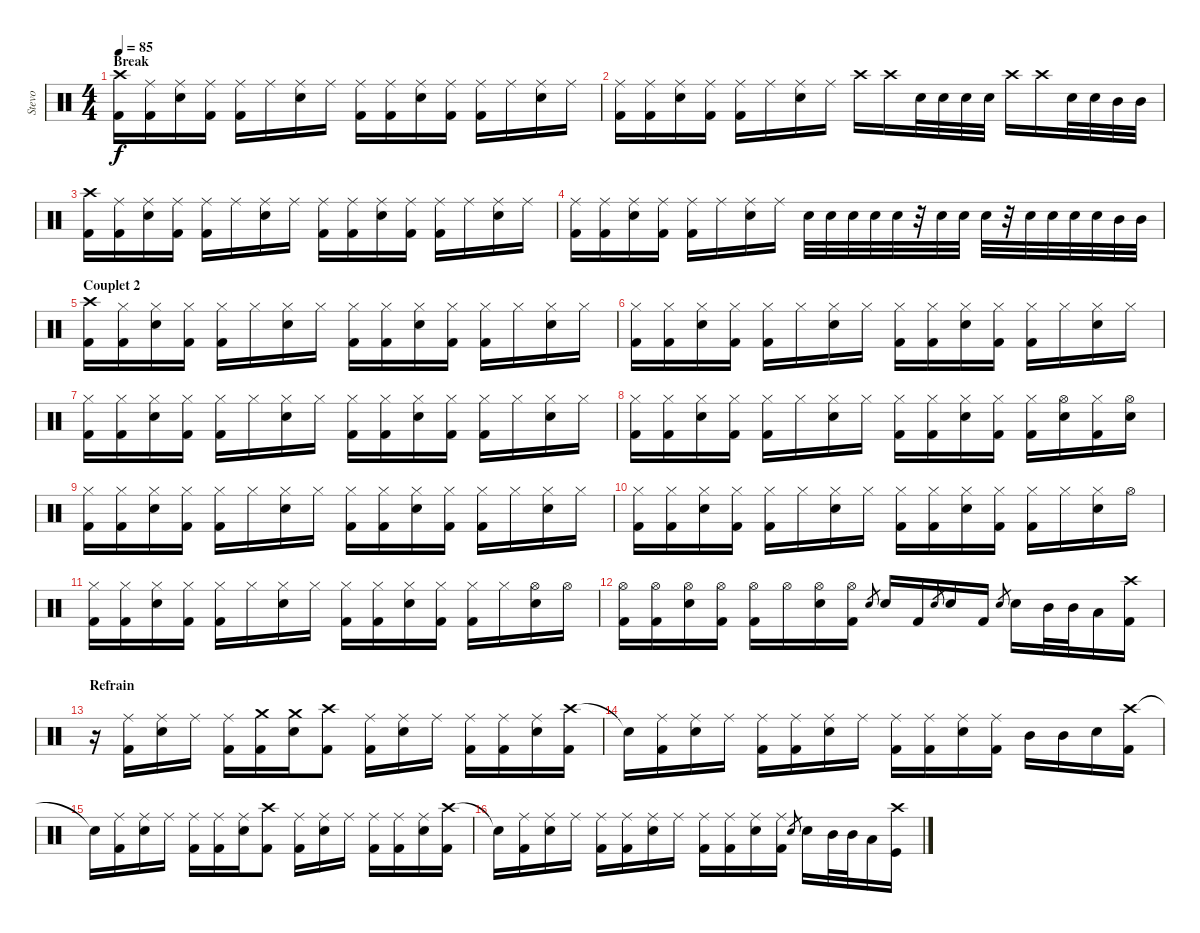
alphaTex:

\track ("Stevo" "Stevo") {instrument percussion}
\staff {score}
\articulation defaults
\ts (4 4)
\section ("" "Break")
\tempo 85
\clef neutral
\ks c
("Crash high (hit)" "Kick (hit) 2").16{dy f} ("Ride (middle)" "Kick (hit) 2").16 ("Ride (middle)" "Electric Snare (hit)").16 ("Ride (middle)" "Kick (hit) 2").16 ("Ride (middle)" "Kick (hit) 2").16 "Ride (middle)".16 ("Ride (middle)" "Electric Snare (hit)").16 "Ride (middle)".16 ("Ride (middle)" "Kick (hit) 2").16 ("Ride (middle)" "Kick (hit) 2").16 ("Ride (middle)" "Electric Snare (hit)").16 ("Ride (middle)" "Kick (hit) 2").16 ("Ride (middle)" "Kick (hit) 2").16 "Ride (middle)".16 ("Ride (middle)" "Electric Snare (hit)").16 "Ride (middle)".16 |
("Ride (middle)" "Kick (hit) 2").16 ("Ride (middle)" "Kick (hit) 2").16 ("Ride (middle)" "Electric Snare (hit)").16 ("Ride (middle)" "Kick (hit) 2").16 ("Ride (middle)" "Kick (hit) 2").16 "Ride (middle)".16 ("Ride (middle)" "Electric Snare (hit)").16 "Ride (middle)".16 "Crash high (hit)".16 "Crash high (hit)".16 "Electric Snare (hit)".32 "Electric Snare (hit)".32 "Electric Snare (hit)".32 "Electric Snare (hit)".32 "Crash high (hit)".16 "Crash high (hit)".16 "Electric Snare (hit)".32 "Electric Snare (hit)".32 "Mid Tom (hit)".32 "Mid Tom (hit)".32 |
("Crash high (hit)" "Kick (hit) 2").16 ("Ride (middle)" "Kick (hit) 2").16 ("Ride (middle)" "Electric Snare (hit)").16 ("Ride (middle)" "Kick (hit) 2").16 ("Ride (middle)" "Kick (hit) 2").16 "Ride (middle)".16 ("Ride (middle)" "Electric Snare (hit)").16 "Ride (middle)".16 ("Ride (middle)" "Kick (hit) 2").16 ("Ride (middle)" "Kick (hit) 2").16 ("Ride (middle)" "Electric Snare (hit)").16 ("Ride (middle)" "Kick (hit) 2").16 ("Ride (middle)" "Kick (hit) 2").16 "Ride (middle)".16 ("Ride (middle)" "Electric Snare (hit)").16 "Ride (middle)".16 |
("Ride (middle)" "Kick (hit) 2").16 ("Ride (middle)" "Kick (hit) 2").16 ("Ride (middle)" "Electric Snare (hit)").16 ("Ride (middle)" "Kick (hit) 2").16 ("Ride (middle)" "Kick (hit) 2").16 "Ride (middle)".16 ("Ride (middle)" "Electric Snare (hit)").16 "Ride (middle)".16 "Electric Snare (hit)".32 "Electric Snare (hit)".32 "Electric Snare (hit)".32 "Electric Snare (hit)".32 "Electric Snare (hit)".32 r.32 "Electric Snare (hit)".32 "Electric Snare (hit)".32 "Electric Snare (hit)".32 r.32 "Electric Snare (hit)".32 "Electric Snare (hit)".32 "Electric Snare (hit)".32 "Electric Snare (hit)".32 "Mid Tom (hit)".32 "Mid Tom (hit)".32 |
\section ("" "Couplet 2")
("Crash high (hit)" "Kick (hit) 2").16 ("Hi-Hat (closed)" "Kick (hit) 2").16 ("Hi-Hat (closed)" "Electric Snare (hit)").16 ("Hi-Hat (closed)" "Kick (hit) 2").16 ("Hi-Hat (closed)" "Kick (hit) 2").16 "Hi-Hat (closed)".16 ("Hi-Hat (closed)" "Electric Snare (hit)").16 "Hi-Hat (closed)".16 ("Hi-Hat (closed)" "Kick (hit) 2").16 ("Hi-Hat (closed)" "Kick (hit) 2").16 ("Hi-Hat (closed)" "Electric Snare (hit)").16 ("Hi-Hat (closed)" "Kick (hit) 2").16 ("Hi-Hat (closed)" "Kick (hit) 2").16 "Hi-Hat (closed)".16 ("Hi-Hat (closed)" "Electric Snare (hit)").16 "Hi-Hat (closed)".16 |
("Hi-Hat (closed)" "Kick (hit) 2").16 ("Hi-Hat (closed)" "Kick (hit) 2").16 ("Hi-Hat (closed)" "Electric Snare (hit)").16 ("Hi-Hat (closed)" "Kick (hit) 2").16 ("Hi-Hat (closed)" "Kick (hit) 2").16 "Hi-Hat (closed)".16 ("Hi-Hat (closed)" "Electric Snare (hit)").16 "Hi-Hat (closed)".16 ("Hi-Hat (closed)" "Kick (hit) 2").16 ("Hi-Hat (closed)" "Kick (hit) 2").16 ("Hi-Hat (closed)" "Electric Snare (hit)").16 ("Hi-Hat (closed)" "Kick (hit) 2").16 ("Hi-Hat (closed)" "Kick (hit) 2").16 "Hi-Hat (closed)".16 ("Hi-Hat (closed)" "Electric Snare (hit)").16 "Hi-Hat (closed)".16 |
("Hi-Hat (closed)" "Kick (hit) 2").16 ("Hi-Hat (closed)" "Kick (hit) 2").16 ("Hi-Hat (closed)" "Electric Snare (hit)").16 ("Hi-Hat (closed)" "Kick (hit) 2").16 ("Hi-Hat (closed)" "Kick (hit) 2").16 "Hi-Hat (closed)".16 ("Hi-Hat (closed)" "Electric Snare (hit)").16 "Hi-Hat (closed)".16 ("Hi-Hat (closed)" "Kick (hit) 2").16 ("Hi-Hat (closed)" "Kick (hit) 2").16 ("Hi-Hat (closed)" "Electric Snare (hit)").16 ("Hi-Hat (closed)" "Kick (hit) 2").16 ("Hi-Hat (closed)" "Kick (hit) 2").16 "Hi-Hat (closed)".16 ("Hi-Hat (closed)" "Electric Snare (hit)").16 "Hi-Hat (closed)".16 |
("Hi-Hat (closed)" "Kick (hit) 2").16 ("Hi-Hat (closed)" "Kick (hit) 2").16 ("Hi-Hat (closed)" "Electric Snare (hit)").16 ("Hi-Hat (closed)" "Kick (hit) 2").16 ("Hi-Hat (closed)" "Kick (hit) 2").16 "Hi-Hat (closed)".16 ("Hi-Hat (closed)" "Electric Snare (hit)").16 "Hi-Hat (closed)".16 ("Hi-Hat (closed)" "Kick (hit) 2").16 ("Hi-Hat (closed)" "Kick (hit) 2").16 ("Hi-Hat (closed)" "Electric Snare (hit)").16 ("Hi-Hat (closed)" "Kick (hit) 2").16 ("Hi-Hat (closed)" "Kick (hit) 2").16 ("Hi-Hat (open)" "Electric Snare (hit)").16 ("Hi-Hat (closed)" "Kick (hit) 2").16 ("Hi-Hat (open)" "Electric Snare (hit)").16 |
("Hi-Hat (closed)" "Kick (hit) 2").16 ("Hi-Hat (closed)" "Kick (hit) 2").16 ("Hi-Hat (closed)" "Electric Snare (hit)").16 ("Hi-Hat (closed)" "Kick (hit) 2").16 ("Hi-Hat (closed)" "Kick (hit) 2").16 "Hi-Hat (closed)".16 ("Hi-Hat (closed)" "Electric Snare (hit)").16 "Hi-Hat (closed)".16 ("Hi-Hat (closed)" "Kick (hit) 2").16 ("Hi-Hat (closed)" "Kick (hit) 2").16 ("Hi-Hat (closed)" "Electric Snare (hit)").16 ("Hi-Hat (closed)" "Kick (hit) 2").16 ("Hi-Hat (closed)" "Kick (hit) 2").16 "Hi-Hat (closed)".16 ("Hi-Hat (closed)" "Electric Snare (hit)").16 "Hi-Hat (closed)".16 |
("Hi-Hat (closed)" "Kick (hit) 2").16 ("Hi-Hat (closed)" "Kick (hit) 2").16 ("Hi-Hat (closed)" "Electric Snare (hit)").16 ("Hi-Hat (closed)" "Kick (hit) 2").16 ("Hi-Hat (closed)" "Kick (hit) 2").16 "Hi-Hat (closed)".16 ("Hi-Hat (closed)" "Electric Snare (hit)").16 "Hi-Hat (closed)".16 ("Hi-Hat (closed)" "Kick (hit) 2").16 ("Hi-Hat (closed)" "Kick (hit) 2").16 ("Hi-Hat (closed)" "Electric Snare (hit)").16 ("Hi-Hat (closed)" "Kick (hit) 2").16 ("Hi-Hat (closed)" "Kick (hit) 2").16 "Hi-Hat (closed)".16 ("Hi-Hat (closed)" "Electric Snare (hit)").16 "Hi-Hat (open)".16 |
("Hi-Hat (closed)" "Kick (hit) 2").16 ("Hi-Hat (closed)" "Kick (hit) 2").16 ("Hi-Hat (closed)" "Electric Snare (hit)").16 ("Hi-Hat (closed)" "Kick (hit) 2").16 ("Hi-Hat (closed)" "Kick (hit) 2").16 "Hi-Hat (closed)".16 ("Hi-Hat (closed)" "Electric Snare (hit)").16 "Hi-Hat (closed)".16 ("Hi-Hat (closed)" "Kick (hit) 2").16 ("Hi-Hat (closed)" "Kick (hit) 2").16 ("Hi-Hat (closed)" "Electric Snare (hit)").16 ("Hi-Hat (closed)" "Kick (hit) 2").16 ("Hi-Hat (closed)" "Kick (hit) 2").16 "Hi-Hat (closed)".16 ("Hi-Hat (open)" "Electric Snare (hit)").16 "Hi-Hat (open)".16 |
("Hi-Hat (open)" "Kick (hit) 2").16 ("Hi-Hat (open)" "Kick (hit) 2").16 ("Hi-Hat (open)" "Electric Snare (hit)").16 ("Hi-Hat (open)" "Kick (hit) 2").16 ("Hi-Hat (open)" "Kick (hit) 2").16 "Hi-Hat (open)".16 ("Hi-Hat (open)" "Electric Snare (hit)").16 ("Hi-Hat (open)" "Kick (hit) 2").16 "Electric Snare (hit)".8{gr} "Electric Snare (hit)".16 "Kick (hit) 2".16 "Electric Snare (hit)".8{gr} "Electric Snare (hit)".16 "Kick (hit) 2".16 "Electric Snare (hit)".8{gr} "Electric Snare (hit)".16 "Mid Tom (hit)".32 "Mid Tom (hit)".32 "Low Tom (hit)".16 ("Crash high (hit)" "Kick (hit) 2").16 |
\section ("" "Refrain")
r.16 ("Ride (middle)" "Kick (hit) 2").16 ("Ride (middle)" "Electric Snare (hit)").16 "Ride (middle)".16 ("Ride (middle)" "Kick (hit) 2").16 ("Crash medium (hit)" "Kick (hit) 2").16 ("Crash medium (hit)" "Electric Snare (hit)").16 ("Crash high (hit)" "Kick (hit) 2").8 ("Ride (middle)" "Kick (hit) 2").16 ("Ride (middle)" "Electric Snare (hit)").16 "Ride (middle)".16 ("Ride (middle)" "Kick (hit) 2").16 ("Ride (middle)" "Kick (hit) 2").16 ("Ride (middle)" "Electric Snare (hit)").16 ("Crash high (hit)" "Kick (hit) 2").16 |
"Snare (hit)"{t}.16 ("Ride (middle)" "Kick (hit) 2").16 ("Ride (middle)" "Electric Snare (hit)").16 "Ride (middle)".16 ("Ride (middle)" "Kick (hit) 2").16 ("Ride (middle)" "Kick (hit) 2").16 ("Ride (middle)" "Electric Snare (hit)").16 "Ride (middle)".16 ("Ride (middle)" "Kick (hit) 2").16 ("Ride (middle)" "Kick (hit) 2").16 ("Ride (middle)" "Electric Snare (hit)").16 ("Ride (middle)" "Kick (hit) 2").16 "Mid Tom (hit)".16 "Mid Tom (hit)".16 "Electric Snare (hit)".16 ("Crash high (hit)" "Kick (hit) 2").16 |
"Snare (hit)"{t}.16 ("Ride (middle)" "Kick (hit) 2").16 ("Ride (middle)" "Electric Snare (hit)").16 "Ride (middle)".16 ("Ride (middle)" "Kick (hit) 2").16 ("Ride (middle)" "Kick (hit) 2").16 ("Ride (middle)" "Electric Snare (hit)").16 ("Crash high (hit)" "Kick (hit) 2").8 ("Ride (middle)" "Kick (hit) 2").16 ("Ride (middle)" "Electric Snare (hit)").16 "Ride (middle)".16 ("Ride (middle)" "Kick (hit) 2").16 ("Ride (middle)" "Kick (hit) 2").16 ("Ride (middle)" "Electric Snare (hit)").16 ("Crash high (hit)" "Kick (hit) 2").16 |
"Snare (hit)"{t}.16 ("Ride (middle)" "Kick (hit) 2").16 ("Ride (middle)" "Electric Snare (hit)").16 "Ride (middle)".16 ("Ride (middle)" "Kick (hit) 2").16 ("Ride (middle)" "Kick (hit) 2").16 ("Ride (middle)" "Electric Snare (hit)").16 "Ride (middle)".16 ("Ride (middle)" "Kick (hit) 2").16 ("Ride (middle)" "Kick (hit) 2").16 ("Ride (middle)" "Electric Snare (hit)").16 ("Ride (middle)" "Kick (hit) 2").16 "Electric Snare (hit)".8{gr} "Electric Snare (hit)".16 "Mid Tom (hit)".32 "Mid Tom (hit)".32 "Low Tom (hit)".16 ("Crash high (hit)" "Kick (hit)").16
